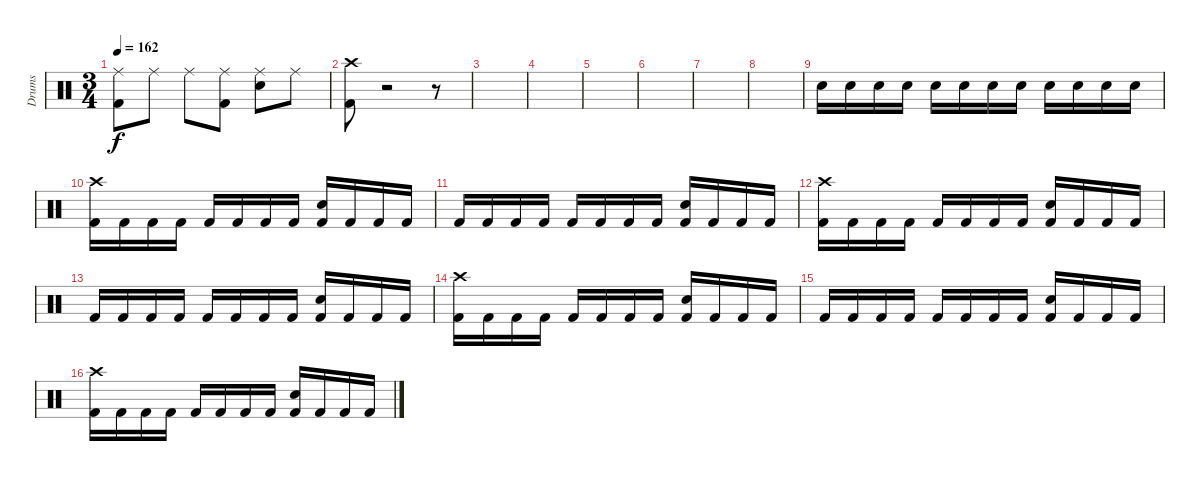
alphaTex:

\track ("Drums" "Drums") {instrument percussion}
\staff {score}
\articulation defaults
\ts (3 4)
\tempo 162
\clef neutral
\ks c
("Ride (middle)" "Kick (hit) 2").8{dy f} "Ride (middle)".8 "Ride (middle)".8 ("Ride (middle)" "Kick (hit) 2").8 ("Ride (middle)" "Snare (hit) 2").8 "Ride (middle)".8 |
("Crash high (hit)" "Kick (hit) 2").8 r.2 r.8 |
|
|
|
|
|
|
"Snare (hit) 2".16 "Snare (hit) 2".16 "Snare (hit) 2".16 "Snare (hit) 2".16 "Snare (hit) 2".16 "Snare (hit) 2".16 "Snare (hit) 2".16 "Snare (hit) 2".16 "Snare (hit) 2".16 "Snare (hit) 2".16 "Snare (hit) 2".16 "Snare (hit) 2".16 |
("Crash high (hit)" "Kick (hit) 2").16 "Kick (hit) 2".16 "Kick (hit) 2".16 "Kick (hit) 2".16 "Kick (hit) 2".16 "Kick (hit) 2".16 "Kick (hit) 2".16 "Kick (hit) 2".16 ("Snare (hit) 2" "Kick (hit) 2").16 "Kick (hit) 2".16 "Kick (hit) 2".16 "Kick (hit) 2".16 |
"Kick (hit) 2".16 "Kick (hit) 2".16 "Kick (hit) 2".16 "Kick (hit) 2".16 "Kick (hit) 2".16 "Kick (hit) 2".16 "Kick (hit) 2".16 "Kick (hit) 2".16 ("Snare (hit) 2" "Kick (hit) 2").16 "Kick (hit) 2".16 "Kick (hit) 2".16 "Kick (hit) 2".16 |
("Crash high (hit)" "Kick (hit) 2").16 "Kick (hit) 2".16 "Kick (hit) 2".16 "Kick (hit) 2".16 "Kick (hit) 2".16 "Kick (hit) 2".16 "Kick (hit) 2".16 "Kick (hit) 2".16 ("Snare (hit) 2" "Kick (hit) 2").16 "Kick (hit) 2".16 "Kick (hit) 2".16 "Kick (hit) 2".16 |
"Kick (hit) 2".16 "Kick (hit) 2".16 "Kick (hit) 2".16 "Kick (hit) 2".16 "Kick (hit) 2".16 "Kick (hit) 2".16 "Kick (hit) 2".16 "Kick (hit) 2".16 ("Snare (hit) 2" "Kick (hit) 2").16 "Kick (hit) 2".16 "Kick (hit) 2".16 "Kick (hit) 2".16 |
("Crash high (hit)" "Kick (hit) 2").16 "Kick (hit) 2".16 "Kick (hit) 2".16 "Kick (hit) 2".16 "Kick (hit) 2".16 "Kick (hit) 2".16 "Kick (hit) 2".16 "Kick (hit) 2".16 ("Snare (hit) 2" "Kick (hit) 2").16 "Kick (hit) 2".16 "Kick (hit) 2".16 "Kick (hit) 2".16 |
"Kick (hit) 2".16 "Kick (hit) 2".16 "Kick (hit) 2".16 "Kick (hit) 2".16 "Kick (hit) 2".16 "Kick (hit) 2".16 "Kick (hit) 2".16 "Kick (hit) 2".16 ("Snare (hit) 2" "Kick (hit) 2").16 "Kick (hit) 2".16 "Kick (hit) 2".16 "Kick (hit) 2".16 |
("Crash high (hit)" "Kick (hit) 2").16 "Kick (hit) 2".16 "Kick (hit) 2".16 "Kick (hit) 2".16 "Kick (hit) 2".16 "Kick (hit) 2".16 "Kick (hit) 2".16 "Kick (hit) 2".16 ("Snare (hit) 2" "Kick (hit) 2").16 "Kick (hit) 2".16 "Kick (hit) 2".16 "Kick (hit) 2".16
